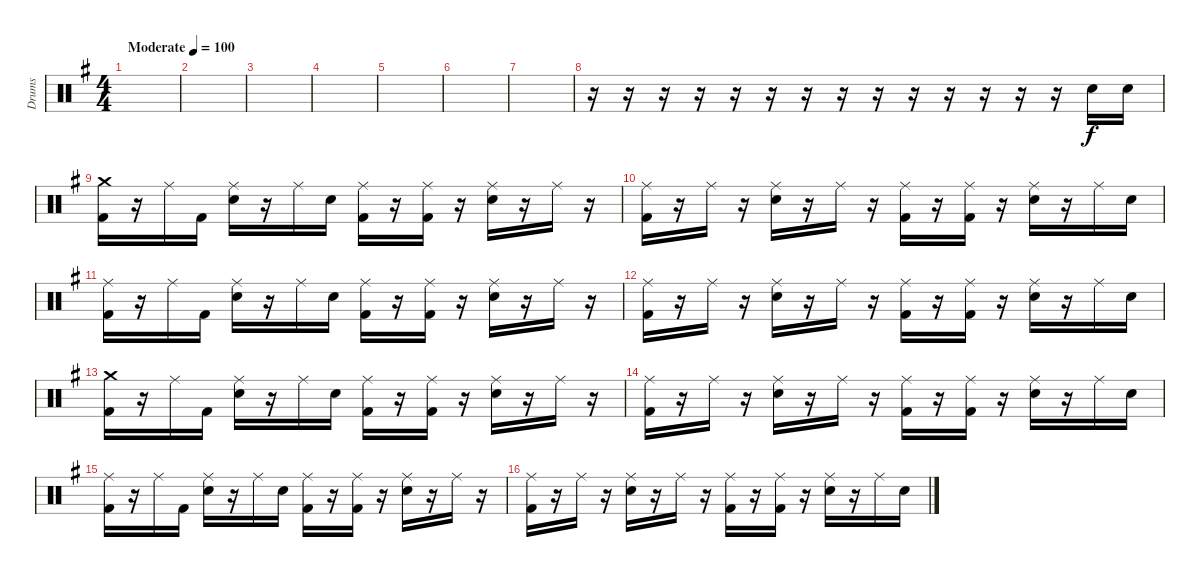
\track ("Drums" "Drums") {instrument percussion}
\staff {score}
\articulation defaults
\ts (4 4)
\tempo (100 "Moderate")
\clef neutral
\ks eminor
|
|
|
|
|
|
|
r.16 r.16 r.16 r.16 r.16 r.16 r.16 r.16 r.16 r.16 r.16 r.16 r.16 r.16 "Electric Snare (hit)".16 "Electric Snare (hit)".16 |
("Crash medium (hit)" "Kick (hit) 2").16 r.16 "Ride (middle)".16 "Kick (hit) 2".16 ("Ride (middle)" "Electric Snare (hit)").16 r.16 "Ride (middle)".16 "Electric Snare (hit)".16 ("Ride (middle)" "Kick (hit) 2").16 r.16 ("Ride (middle)" "Kick (hit) 2").16 r.16 ("Ride (middle)" "Electric Snare (hit)").16 r.16 "Ride (middle)".16 r.16 |
("Ride (middle)" "Kick (hit) 2").16 r.16 "Ride (middle)".16 r.16 ("Ride (middle)" "Electric Snare (hit)").16 r.16 "Ride (middle)".16 r.16 ("Ride (middle)" "Kick (hit) 2").16 r.16 ("Ride (middle)" "Kick (hit) 2").16 r.16 ("Ride (middle)" "Electric Snare (hit)").16 r.16 "Ride (middle)".16 "Electric Snare (hit)".16 |
("Ride (middle)" "Kick (hit) 2").16 r.16 "Ride (middle)".16 "Kick (hit) 2".16 ("Ride (middle)" "Electric Snare (hit)").16 r.16 "Ride (middle)".16 "Electric Snare (hit)".16 ("Ride (middle)" "Kick (hit) 2").16 r.16 ("Ride (middle)" "Kick (hit) 2").16 r.16 ("Ride (middle)" "Electric Snare (hit)").16 r.16 "Ride (middle)".16 r.16 |
("Ride (middle)" "Kick (hit) 2").16 r.16 "Ride (middle)".16 r.16 ("Ride (middle)" "Electric Snare (hit)").16 r.16 "Ride (middle)".16 r.16 ("Ride (middle)" "Kick (hit) 2").16 r.16 ("Ride (middle)" "Kick (hit) 2").16 r.16 ("Ride (middle)" "Electric Snare (hit)").16 r.16 "Ride (middle)".16 "Electric Snare (hit)".16 |
("Crash medium (hit)" "Kick (hit) 2").16 r.16 "Ride (middle)".16 "Kick (hit) 2".16 ("Ride (middle)" "Electric Snare (hit)").16 r.16 "Ride (middle)".16 "Electric Snare (hit)".16 ("Ride (middle)" "Kick (hit) 2").16 r.16 ("Ride (middle)" "Kick (hit) 2").16 r.16 ("Ride (middle)" "Electric Snare (hit)").16 r.16 "Ride (middle)".16 r.16 |
("Ride (middle)" "Kick (hit) 2").16 r.16 "Ride (middle)".16 r.16 ("Ride (middle)" "Electric Snare (hit)").16 r.16 "Ride (middle)".16 r.16 ("Ride (middle)" "Kick (hit) 2").16 r.16 ("Ride (middle)" "Kick (hit) 2").16 r.16 ("Ride (middle)" "Electric Snare (hit)").16 r.16 "Ride (middle)".16 "Electric Snare (hit)".16 |
("Ride (middle)" "Kick (hit) 2").16 r.16 "Ride (middle)".16 "Kick (hit) 2".16 ("Ride (middle)" "Electric Snare (hit)").16 r.16 "Ride (middle)".16 "Electric Snare (hit)".16 ("Ride (middle)" "Kick (hit) 2").16 r.16 ("Ride (middle)" "Kick (hit) 2").16 r.16 ("Ride (middle)" "Electric Snare (hit)").16 r.16 "Ride (middle)".16 r.16 |
("Ride (middle)" "Kick (hit) 2").16 r.16 "Ride (middle)".16 r.16 ("Ride (middle)" "Electric Snare (hit)").16 r.16 "Ride (middle)".16 r.16 ("Ride (middle)" "Kick (hit) 2").16 r.16 ("Ride (middle)" "Kick (hit) 2").16 r.16 ("Ride (middle)" "Electric Snare (hit)").16 r.16 "Ride (middle)".16 "Electric Snare (hit)".16
